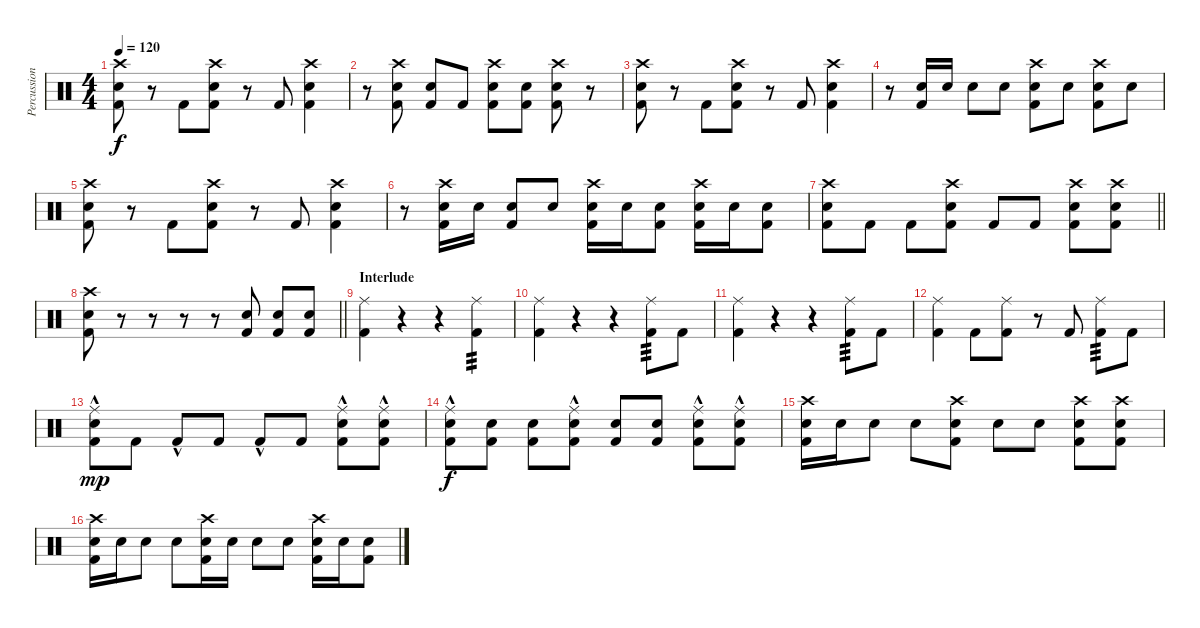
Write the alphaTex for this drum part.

\track ("Percussion" "Percussion") {instrument percussion}
\staff {score}
\articulation defaults
\ts (4 4)
\tempo 120
\clef neutral
\ks c
("Crash high (hit)" "Electric Snare (hit)" "Kick (hit) 2").8{dy f} r.8 "Kick (hit) 2".8 ("Crash high (hit)" "Electric Snare (hit)" "Kick (hit) 2").8 r.8 "Kick (hit) 2".8 ("Crash high (hit)" "Electric Snare (hit)" "Kick (hit) 2").4 |
r.8 ("Crash high (hit)" "Electric Snare (hit)" "Kick (hit) 2").8 ("Electric Snare (hit)" "Kick (hit) 2").8 "Kick (hit) 2".8 ("Crash high (hit)" "Electric Snare (hit)" "Kick (hit) 2").8 ("Electric Snare (hit)" "Kick (hit) 2").8 ("Crash high (hit)" "Electric Snare (hit)" "Kick (hit) 2").8 r.8 |
("Crash high (hit)" "Electric Snare (hit)" "Kick (hit) 2").8 r.8 "Kick (hit) 2".8 ("Crash high (hit)" "Electric Snare (hit)" "Kick (hit) 2").8 r.8 "Kick (hit) 2".8 ("Crash high (hit)" "Electric Snare (hit)" "Kick (hit) 2").4 |
r.8 ("Electric Snare (hit)" "Kick (hit) 2").16 "Electric Snare (hit)".16 "Electric Snare (hit)".8 "Electric Snare (hit)".8 ("Crash high (hit)" "Electric Snare (hit)" "Kick (hit) 2").8 "Electric Snare (hit)".8 ("Crash high (hit)" "Electric Snare (hit)" "Kick (hit) 2").8 "Electric Snare (hit)".8 |
("Crash high (hit)" "Electric Snare (hit)" "Kick (hit) 2").8 r.8 "Kick (hit) 2".8 ("Crash high (hit)" "Electric Snare (hit)" "Kick (hit) 2").8 r.8 "Kick (hit) 2".8 ("Crash high (hit)" "Electric Snare (hit)" "Kick (hit) 2").4 |
r.8 ("Crash high (hit)" "Electric Snare (hit)" "Kick (hit) 2").16 "Electric Snare (hit)".16 ("Electric Snare (hit)" "Kick (hit) 2").8 "Electric Snare (hit)".8 ("Crash high (hit)" "Electric Snare (hit)" "Kick (hit) 2").16 "Electric Snare (hit)".16 ("Electric Snare (hit)" "Kick (hit) 2").8 ("Crash high (hit)" "Electric Snare (hit)" "Kick (hit) 2").16 "Electric Snare (hit)".16 ("Electric Snare (hit)" "Kick (hit) 2").8 |
\barLineRight lightlight
("Crash high (hit)" "Electric Snare (hit)" "Kick (hit) 2").8 "Kick (hit) 2".8 "Kick (hit) 2".8 ("Crash high (hit)" "Electric Snare (hit)" "Kick (hit) 2").8 "Kick (hit) 2".8 "Kick (hit) 2".8 ("Crash high (hit)" "Electric Snare (hit)" "Kick (hit) 2").8 ("Crash high (hit)" "Electric Snare (hit)" "Kick (hit) 2").8 |
\section ("" "")
\barLineRight lightlight
("Crash high (hit)" "Electric Snare (hit)" "Kick (hit) 2").8 r.8 r.8 r.8 r.8 ("Electric Snare (hit)" "Kick (hit) 2").8 ("Electric Snare (hit)" "Kick (hit) 2").8 ("Electric Snare (hit)" "Kick (hit) 2").8 |
\section ("" "Interlude")
("Ride (middle)" "Kick (hit) 2").4 r.4 r.4 ("Kick (hit) 2" "Ride (middle)").4{tp 3} |
("Ride (middle)" "Kick (hit) 2").4 r.4 r.4 ("Ride (middle)" "Kick (hit) 2").8{tp 3} "Kick (hit) 2".8 |
("Ride (middle)" "Kick (hit) 2").4 r.4 r.4 ("Ride (middle)" "Kick (hit) 2").8{tp 3} "Kick (hit) 2".8 |
("Ride (middle)" "Kick (hit) 2").4 "Kick (hit) 2".8 ("Ride (middle)" "Kick (hit) 2").8 r.8 "Kick (hit) 2".8 ("Ride (middle)" "Kick (hit) 2").8{tp 3} "Kick (hit) 2".8 |
("Ride (middle)" "Electric Snare (hit)" "Kick (hit) 2"{hac}).8{dy mp} "Kick (hit) 2".8 "Kick (hit) 2"{hac}.8 "Kick (hit) 2".8 "Kick (hit) 2"{hac}.8 "Kick (hit) 2".8 ("Ride (middle)" "Electric Snare (hit)"{hac} "Kick (hit) 2"{hac}).8 ("Ride (middle)" "Electric Snare (hit)"{hac} "Kick (hit) 2"{hac}).8 |
("Ride (middle)" "Electric Snare (hit)"{hac} "Kick (hit) 2").8{dy f} ("Electric Snare (hit)" "Kick (hit) 2").8 ("Electric Snare (hit)" "Kick (hit) 2").8 ("Ride (middle)" "Electric Snare (hit)"{hac} "Kick (hit) 2").8 ("Electric Snare (hit)" "Kick (hit) 2").8 ("Electric Snare (hit)" "Kick (hit) 2").8 ("Ride (middle)" "Electric Snare (hit)"{hac} "Kick (hit) 2").8 ("Ride (middle)" "Electric Snare (hit)"{hac} "Kick (hit) 2").8 |
("Crash high (hit)" "Electric Snare (hit)" "Kick (hit) 2").16 "Electric Snare (hit)".16 "Electric Snare (hit)".8 "Electric Snare (hit)".8 ("Crash high (hit)" "Electric Snare (hit)" "Kick (hit) 2").8 "Electric Snare (hit)".8 "Electric Snare (hit)".8 ("Crash high (hit)" "Electric Snare (hit)" "Kick (hit) 2").8 ("Crash high (hit)" "Electric Snare (hit)" "Kick (hit) 2").8 |
("Crash high (hit)" "Electric Snare (hit)" "Kick (hit) 2").16 "Electric Snare (hit)".16 "Electric Snare (hit)".8 "Electric Snare (hit)".8 ("Crash high (hit)" "Electric Snare (hit)" "Kick (hit) 2").16 "Electric Snare (hit)".16 "Electric Snare (hit)".8 "Electric Snare (hit)".8 ("Crash high (hit)" "Electric Snare (hit)" "Kick (hit) 2").16 "Electric Snare (hit)".16 ("Electric Snare (hit)" "Kick (hit) 2").8
